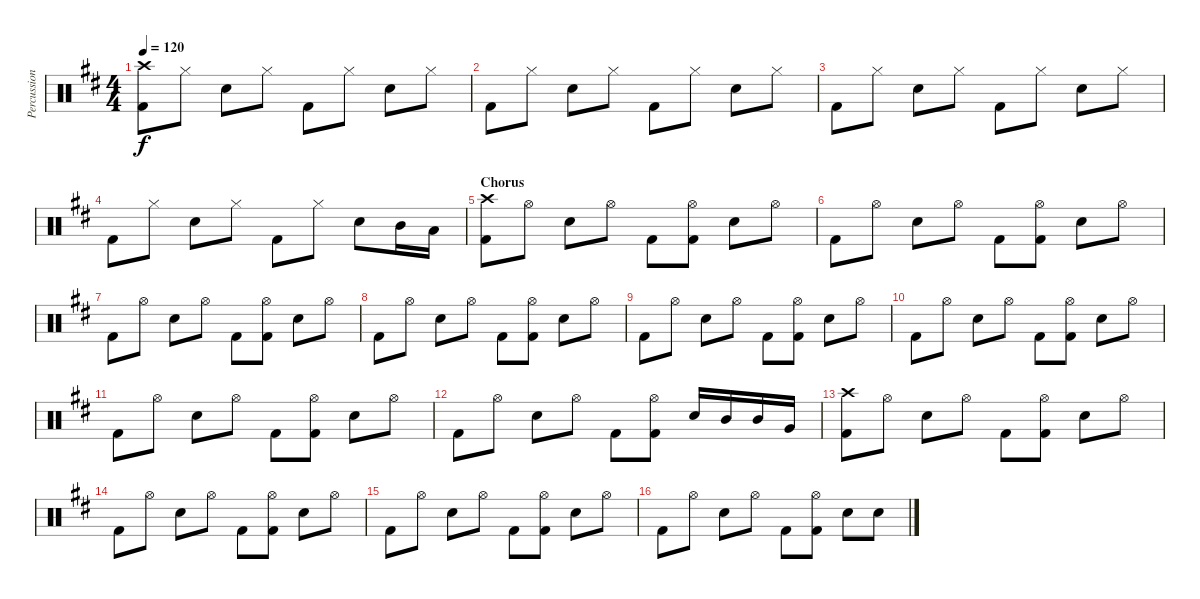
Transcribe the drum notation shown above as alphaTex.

\track ("Percussion" "Percussion") {instrument percussion}
\staff {score}
\articulation defaults
\ts (4 4)
\tempo 120
\clef neutral
\ks d
("Crash high (hit)" "Kick (hit) 2").8{dy f} "Hi-Hat (closed)".8 "Snare (hit) 2".8 "Hi-Hat (closed)".8 "Kick (hit) 2".8 "Hi-Hat (closed)".8 "Snare (hit) 2".8 "Hi-Hat (closed)".8 |
"Kick (hit) 2".8 "Hi-Hat (closed)".8 "Snare (hit) 2".8 "Hi-Hat (closed)".8 "Kick (hit) 2".8 "Hi-Hat (closed)".8 "Snare (hit) 2".8 "Hi-Hat (closed)".8 |
"Kick (hit) 2".8 "Hi-Hat (closed)".8 "Snare (hit) 2".8 "Hi-Hat (closed)".8 "Kick (hit) 2".8 "Hi-Hat (closed)".8 "Snare (hit) 2".8 "Hi-Hat (closed)".8 |
"Kick (hit) 2".8 "Hi-Hat (closed)".8 "Snare (hit) 2".8 "Hi-Hat (closed)".8 "Kick (hit) 2".8 "Hi-Hat (closed)".8 "Snare (hit) 2".8 "Mid Tom (hit)".16 "Low Tom (hit)".16 |
\section ("" "Chorus")
("Crash high (hit)" "Kick (hit) 2").8 "Hi-Hat (open)".8 "Snare (hit) 2".8 "Hi-Hat (open)".8 "Kick (hit) 2".8 ("Hi-Hat (open)" "Kick (hit) 2").8 "Snare (hit) 2".8 "Hi-Hat (open)".8 |
"Kick (hit) 2".8 "Hi-Hat (open)".8 "Snare (hit) 2".8 "Hi-Hat (open)".8 "Kick (hit) 2".8 ("Hi-Hat (open)" "Kick (hit) 2").8 "Snare (hit) 2".8 "Hi-Hat (open)".8 |
"Kick (hit) 2".8 "Hi-Hat (open)".8 "Snare (hit) 2".8 "Hi-Hat (open)".8 "Kick (hit) 2".8 ("Hi-Hat (open)" "Kick (hit) 2").8 "Snare (hit) 2".8 "Hi-Hat (open)".8 |
"Kick (hit) 2".8 "Hi-Hat (open)".8 "Snare (hit) 2".8 "Hi-Hat (open)".8 "Kick (hit) 2".8 ("Hi-Hat (open)" "Kick (hit) 2").8 "Snare (hit) 2".8 "Hi-Hat (open)".8 |
"Kick (hit) 2".8 "Hi-Hat (open)".8 "Snare (hit) 2".8 "Hi-Hat (open)".8 "Kick (hit) 2".8 ("Hi-Hat (open)" "Kick (hit) 2").8 "Snare (hit) 2".8 "Hi-Hat (open)".8 |
"Kick (hit) 2".8 "Hi-Hat (open)".8 "Snare (hit) 2".8 "Hi-Hat (open)".8 "Kick (hit) 2".8 ("Hi-Hat (open)" "Kick (hit) 2").8 "Snare (hit) 2".8 "Hi-Hat (open)".8 |
"Kick (hit) 2".8 "Hi-Hat (open)".8 "Snare (hit) 2".8 "Hi-Hat (open)".8 "Kick (hit) 2".8 ("Hi-Hat (open)" "Kick (hit) 2").8 "Snare (hit) 2".8 "Hi-Hat (open)".8 |
"Kick (hit) 2".8 "Hi-Hat (open)".8 "Snare (hit) 2".8 "Hi-Hat (open)".8 "Kick (hit) 2".8 ("Hi-Hat (open)" "Kick (hit) 2").8 "Snare (hit) 2".16 "Mid Tom (hit)".16 "Mid Tom (hit)".16 "Very Low Tom (hit)".16 |
("Crash high (hit)" "Kick (hit) 2").8 "Hi-Hat (open)".8 "Snare (hit) 2".8 "Hi-Hat (open)".8 "Kick (hit) 2".8 ("Hi-Hat (open)" "Kick (hit) 2").8 "Snare (hit) 2".8 "Hi-Hat (open)".8 |
"Kick (hit) 2".8 "Hi-Hat (open)".8 "Snare (hit) 2".8 "Hi-Hat (open)".8 "Kick (hit) 2".8 ("Hi-Hat (open)" "Kick (hit) 2").8 "Snare (hit) 2".8 "Hi-Hat (open)".8 |
"Kick (hit) 2".8 "Hi-Hat (open)".8 "Snare (hit) 2".8 "Hi-Hat (open)".8 "Kick (hit) 2".8 ("Hi-Hat (open)" "Kick (hit) 2").8 "Snare (hit) 2".8 "Hi-Hat (open)".8 |
"Kick (hit) 2".8 "Hi-Hat (open)".8 "Snare (hit) 2".8 "Hi-Hat (open)".8 "Kick (hit) 2".8 ("Hi-Hat (open)" "Kick (hit) 2").8 "Snare (hit) 2".8 "Snare (hit) 2".8
